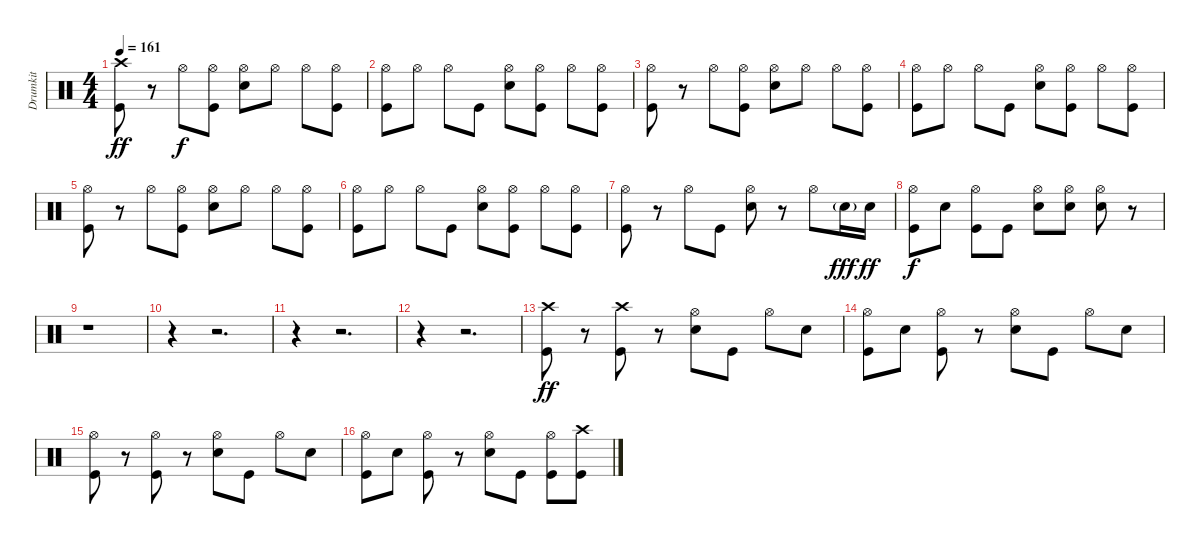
\track ("Drumkit" "Drumkit") {instrument percussion}
\staff {score}
\articulation defaults
\ts (4 4)
\tempo 161
\clef neutral
\ks c
("Crash high (hit)" "Kick (hit)").8{dy ff} r.8 "Hi-Hat (open)".8{dy f} ("Hi-Hat (open)" "Kick (hit)").8 ("Hi-Hat (open)" "Snare (hit) 2").8 "Hi-Hat (open)".8 "Hi-Hat (open)".8 ("Hi-Hat (open)" "Kick (hit)").8 |
("Hi-Hat (open)" "Kick (hit)").8 "Hi-Hat (open)".8 "Hi-Hat (open)".8 "Kick (hit)".8 ("Hi-Hat (open)" "Snare (hit) 2").8 ("Hi-Hat (open)" "Kick (hit)").8 "Hi-Hat (open)".8 ("Hi-Hat (open)" "Kick (hit)").8 |
("Kick (hit)" "Hi-Hat (open)").8 r.8 "Hi-Hat (open)".8 ("Hi-Hat (open)" "Kick (hit)").8 ("Hi-Hat (open)" "Snare (hit) 2").8 "Hi-Hat (open)".8 "Hi-Hat (open)".8 ("Hi-Hat (open)" "Kick (hit)").8 |
("Hi-Hat (open)" "Kick (hit)").8 "Hi-Hat (open)".8 "Hi-Hat (open)".8 "Kick (hit)".8 ("Hi-Hat (open)" "Snare (hit) 2").8 ("Hi-Hat (open)" "Kick (hit)").8 "Hi-Hat (open)".8 ("Hi-Hat (open)" "Kick (hit)").8 |
("Kick (hit)" "Hi-Hat (open)").8 r.8 "Hi-Hat (open)".8 ("Hi-Hat (open)" "Kick (hit)").8 ("Hi-Hat (open)" "Snare (hit) 2").8 "Hi-Hat (open)".8 "Hi-Hat (open)".8 ("Hi-Hat (open)" "Kick (hit)").8 |
("Hi-Hat (open)" "Kick (hit)").8 "Hi-Hat (open)".8 "Hi-Hat (open)".8 "Kick (hit)".8 ("Hi-Hat (open)" "Snare (hit) 2").8 ("Hi-Hat (open)" "Kick (hit)").8 "Hi-Hat (open)".8 ("Hi-Hat (open)" "Kick (hit)").8 |
("Kick (hit)" "Hi-Hat (open)").8 r.8 "Hi-Hat (open)".8 "Kick (hit)".8 ("Hi-Hat (open)" "Snare (hit) 2").8 r.8 "Hi-Hat (open)".8 "Snare (hit) 2"{g}.16{dy fff} "Snare (hit) 2".16{dy ff} |
("Hi-Hat (open)" "Kick (hit)").8{dy f} "Snare (hit) 2".8 ("Hi-Hat (open)" "Kick (hit)").8 "Kick (hit)".8 ("Hi-Hat (open)" "Snare (hit) 2").8 ("Hi-Hat (open)" "Snare (hit) 2").8 ("Hi-Hat (open)" "Snare (hit) 2").8 r.8 |
r.1 |
r.4 r.2{d} |
r.4 r.2{d} |
r.4 r.2{d} |
("Kick (hit)" "Crash high (hit)").8{dy ff} r.8 ("Kick (hit)" "Crash high (hit)").8 r.8 ("Hi-Hat (open)" "Snare (hit) 2").8 "Kick (hit)".8 "Hi-Hat (open)".8 "Snare (hit) 2".8 |
("Hi-Hat (open)" "Kick (hit)").8 "Snare (hit) 2".8 ("Hi-Hat (open)" "Kick (hit)").8 r.8 ("Hi-Hat (open)" "Snare (hit) 2").8 "Kick (hit)".8 "Hi-Hat (open)".8 "Snare (hit) 2".8 |
("Hi-Hat (open)" "Kick (hit)").8 r.8 ("Hi-Hat (open)" "Kick (hit)").8 r.8 ("Hi-Hat (open)" "Snare (hit) 2").8 "Kick (hit)".8 "Hi-Hat (open)".8 "Snare (hit) 2".8 |
("Hi-Hat (open)" "Kick (hit)").8 "Snare (hit) 2".8 ("Hi-Hat (open)" "Kick (hit)").8 r.8 ("Hi-Hat (open)" "Snare (hit) 2").8 "Kick (hit)".8 ("Kick (hit)" "Hi-Hat (open)").8 ("Kick (hit)" "Crash high (hit)").8
